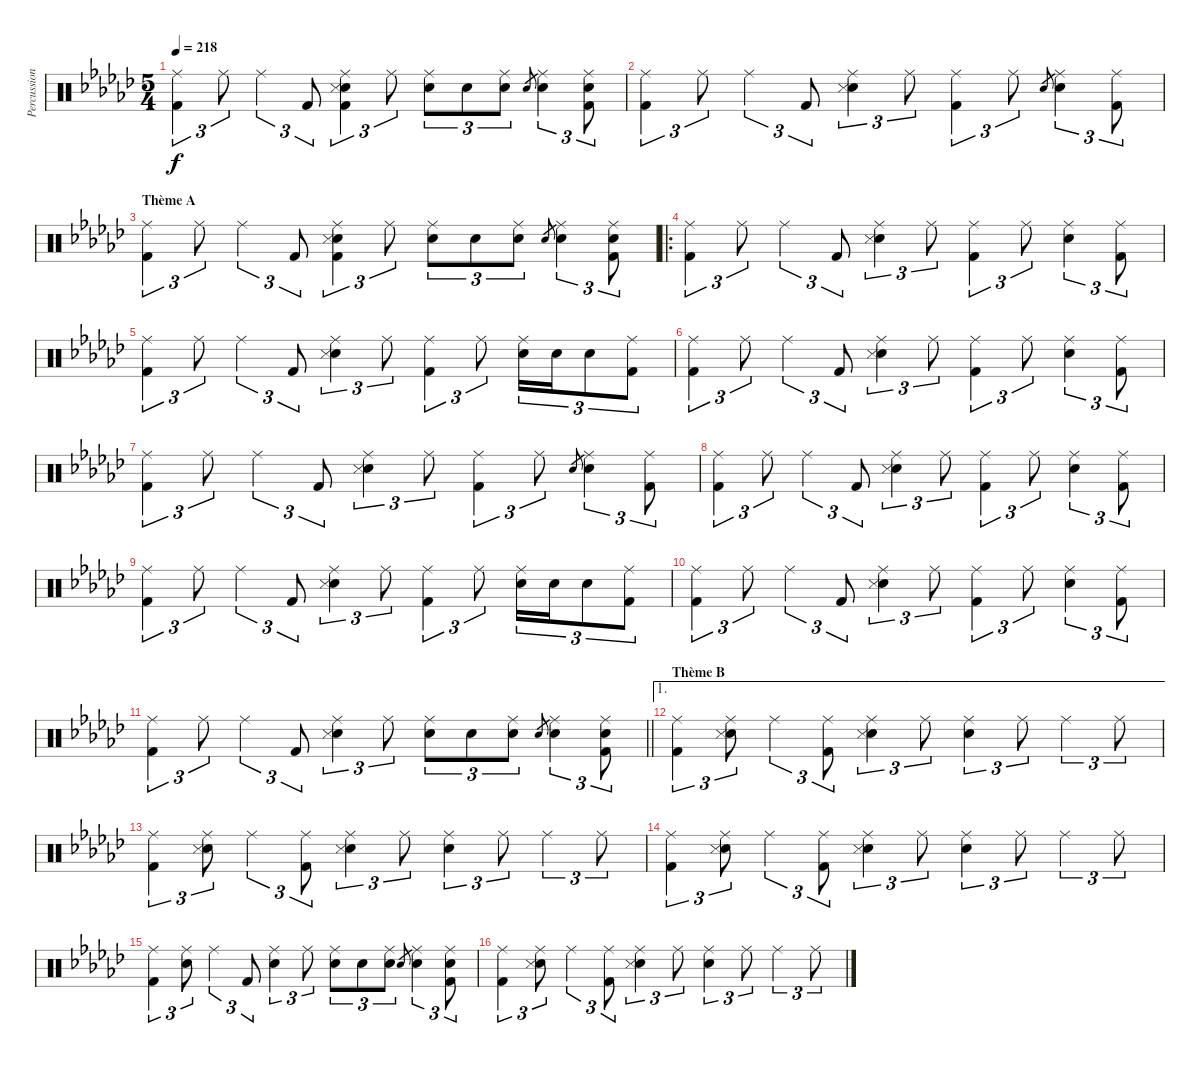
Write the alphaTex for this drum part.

\track ("Percussions" "Percussion") {instrument percussion}
\staff {score}
\articulation defaults
\ts (5 4)
\tempo 218
\clef neutral
\ks ebminor
("Ride (middle)" "Kick (hit) 2").4{tu (3 2) dy f} "Ride (middle)".8{tu (3 2)} "Ride (middle)".4{tu (3 2)} "Kick (hit) 2".8{tu (3 2)} ("Ride (middle)" "Snare (hit) 2" "Snare (side stick) 3" "Kick (hit) 2").4{tu (3 2)} "Ride (middle)".8{tu (3 2)} ("Ride (middle)" "Snare (hit) 2").8{tu (3 2)} "Snare (hit) 2".8{tu (3 2)} ("Ride (middle)" "Snare (hit) 2").8{tu (3 2)} "Snare (hit) 2".8{gr} ("Ride (middle)" "Snare (hit) 2").4{tu (3 2)} ("Ride (middle)" "Snare (hit) 2" "Kick (hit) 2").8{tu (3 2)} |
("Ride (middle)" "Kick (hit) 2").4{tu (3 2)} "Ride (middle)".8{tu (3 2)} "Ride (middle)".4{tu (3 2)} "Kick (hit) 2".8{tu (3 2)} ("Ride (middle)" "Snare (hit) 2" "Snare (side stick) 3").4{tu (3 2)} "Ride (middle)".8{tu (3 2)} ("Ride (middle)" "Kick (hit) 2").4{tu (3 2)} "Ride (middle)".8{tu (3 2)} "Snare (hit) 2".8{gr} ("Ride (middle)" "Snare (hit) 2").4{tu (3 2)} ("Ride (middle)" "Kick (hit) 2").8{tu (3 2)} |
\section ("" "Thème A")
("Ride (middle)" "Kick (hit) 2").4{tu (3 2)} "Ride (middle)".8{tu (3 2)} "Ride (middle)".4{tu (3 2)} "Kick (hit) 2".8{tu (3 2)} ("Ride (middle)" "Snare (hit) 2" "Snare (side stick) 3" "Kick (hit) 2").4{tu (3 2)} "Ride (middle)".8{tu (3 2)} ("Ride (middle)" "Snare (hit) 2").8{tu (3 2)} "Snare (hit) 2".8{tu (3 2)} ("Ride (middle)" "Snare (hit) 2").8{tu (3 2)} "Snare (hit) 2".8{gr} ("Ride (middle)" "Snare (hit) 2").4{tu (3 2)} ("Ride (middle)" "Snare (hit) 2" "Kick (hit) 2").8{tu (3 2)} |
\ro
("Ride (middle)" "Kick (hit) 2").4{tu (3 2) volume 14 balance 8} "Ride (middle)".8{tu (3 2)} "Ride (middle)".4{tu (3 2)} "Kick (hit) 2".8{tu (3 2)} ("Ride (middle)" "Snare (hit) 2" "Snare (side stick) 3").4{tu (3 2)} "Ride (middle)".8{tu (3 2)} ("Ride (middle)" "Kick (hit) 2").4{tu (3 2)} "Ride (middle)".8{tu (3 2)} ("Ride (middle)" "Snare (hit) 2").4{tu (3 2)} ("Ride (middle)" "Kick (hit) 2").8{tu (3 2)} |
("Ride (middle)" "Kick (hit) 2").4{tu (3 2)} "Ride (middle)".8{tu (3 2)} "Ride (middle)".4{tu (3 2)} "Kick (hit) 2".8{tu (3 2)} ("Ride (middle)" "Snare (hit) 2" "Snare (side stick) 3").4{tu (3 2)} "Ride (middle)".8{tu (3 2)} ("Ride (middle)" "Kick (hit) 2").4{tu (3 2)} "Ride (middle)".8{tu (3 2)} ("Ride (middle)" "Snare (hit) 2").16{tu (3 2)} "Snare (hit) 2".16{tu (3 2)} "Snare (hit) 2".8{tu (3 2)} ("Ride (middle)" "Kick (hit) 2").8{tu (3 2)} |
("Ride (middle)" "Kick (hit) 2").4{tu (3 2)} "Ride (middle)".8{tu (3 2)} "Ride (middle)".4{tu (3 2)} "Kick (hit) 2".8{tu (3 2)} ("Ride (middle)" "Snare (hit) 2" "Snare (side stick) 3").4{tu (3 2)} "Ride (middle)".8{tu (3 2)} ("Ride (middle)" "Kick (hit) 2").4{tu (3 2)} "Ride (middle)".8{tu (3 2)} ("Ride (middle)" "Snare (hit) 2").4{tu (3 2)} ("Ride (middle)" "Kick (hit) 2").8{tu (3 2)} |
("Ride (middle)" "Kick (hit) 2").4{tu (3 2)} "Ride (middle)".8{tu (3 2)} "Ride (middle)".4{tu (3 2)} "Kick (hit) 2".8{tu (3 2)} ("Ride (middle)" "Snare (hit) 2" "Snare (side stick) 3").4{tu (3 2)} "Ride (middle)".8{tu (3 2)} ("Ride (middle)" "Kick (hit) 2").4{tu (3 2)} "Ride (middle)".8{tu (3 2)} "Snare (hit) 2".8{gr} ("Ride (middle)" "Snare (hit) 2").4{tu (3 2)} ("Ride (middle)" "Kick (hit) 2").8{tu (3 2)} |
("Ride (middle)" "Kick (hit) 2").4{tu (3 2)} "Ride (middle)".8{tu (3 2)} "Ride (middle)".4{tu (3 2)} "Kick (hit) 2".8{tu (3 2)} ("Ride (middle)" "Snare (hit) 2" "Snare (side stick) 3").4{tu (3 2)} "Ride (middle)".8{tu (3 2)} ("Ride (middle)" "Kick (hit) 2").4{tu (3 2)} "Ride (middle)".8{tu (3 2)} ("Ride (middle)" "Snare (hit) 2").4{tu (3 2)} ("Ride (middle)" "Kick (hit) 2").8{tu (3 2)} |
("Ride (middle)" "Kick (hit) 2").4{tu (3 2)} "Ride (middle)".8{tu (3 2)} "Ride (middle)".4{tu (3 2)} "Kick (hit) 2".8{tu (3 2)} ("Ride (middle)" "Snare (hit) 2" "Snare (side stick) 3").4{tu (3 2)} "Ride (middle)".8{tu (3 2)} ("Ride (middle)" "Kick (hit) 2").4{tu (3 2)} "Ride (middle)".8{tu (3 2)} ("Ride (middle)" "Snare (hit) 2").16{tu (3 2)} "Snare (hit) 2".16{tu (3 2)} "Snare (hit) 2".8{tu (3 2)} ("Ride (middle)" "Kick (hit) 2").8{tu (3 2)} |
("Ride (middle)" "Kick (hit) 2").4{tu (3 2)} "Ride (middle)".8{tu (3 2)} "Ride (middle)".4{tu (3 2)} "Kick (hit) 2".8{tu (3 2)} ("Ride (middle)" "Snare (hit) 2" "Snare (side stick) 3").4{tu (3 2)} "Ride (middle)".8{tu (3 2)} ("Ride (middle)" "Kick (hit) 2").4{tu (3 2)} "Ride (middle)".8{tu (3 2)} ("Ride (middle)" "Snare (hit) 2").4{tu (3 2)} ("Ride (middle)" "Kick (hit) 2").8{tu (3 2)} |
\barLineRight lightlight
("Ride (middle)" "Kick (hit) 2").4{tu (3 2)} "Ride (middle)".8{tu (3 2)} "Ride (middle)".4{tu (3 2)} "Kick (hit) 2".8{tu (3 2)} ("Ride (middle)" "Snare (hit) 2" "Snare (side stick) 3").4{tu (3 2)} "Ride (middle)".8{tu (3 2)} ("Ride (middle)" "Snare (hit) 2").8{tu (3 2)} "Snare (hit) 2".8{tu (3 2)} ("Ride (middle)" "Snare (hit) 2").8{tu (3 2)} "Snare (hit) 2".8{gr} ("Ride (middle)" "Snare (hit) 2").4{tu (3 2)} ("Ride (middle)" "Snare (hit) 2" "Kick (hit) 2").8{tu (3 2)} |
\ae 1
\section ("" "Thème B")
("Ride (middle)" "Kick (hit) 2").4{tu (3 2) volume 15 balance 8} ("Ride (middle)" "Snare (hit) 2" "Snare (side stick) 3").8{tu (3 2)} "Ride (middle)".4{tu (3 2)} ("Ride (middle)" "Kick (hit) 2").8{tu (3 2)} ("Ride (middle)" "Snare (hit) 2" "Snare (side stick) 3").4{tu (3 2)} "Ride (middle)".8{tu (3 2)} ("Ride (middle)" "Snare (hit) 2").4{tu (3 2)} "Ride (middle)".8{tu (3 2)} "Ride (middle)".4{tu (3 2)} "Ride (middle)".8{tu (3 2)} |
("Ride (middle)" "Kick (hit) 2").4{tu (3 2)} ("Ride (middle)" "Snare (hit) 2" "Snare (side stick) 3").8{tu (3 2)} "Ride (middle)".4{tu (3 2)} ("Ride (middle)" "Kick (hit) 2").8{tu (3 2)} ("Ride (middle)" "Snare (hit) 2" "Snare (side stick) 3").4{tu (3 2)} "Ride (middle)".8{tu (3 2)} ("Ride (middle)" "Snare (hit) 2").4{tu (3 2)} "Ride (middle)".8{tu (3 2)} "Ride (middle)".4{tu (3 2)} "Ride (middle)".8{tu (3 2)} |
("Ride (middle)" "Kick (hit) 2").4{tu (3 2)} ("Ride (middle)" "Snare (hit) 2" "Snare (side stick) 3").8{tu (3 2)} "Ride (middle)".4{tu (3 2)} ("Ride (middle)" "Kick (hit) 2").8{tu (3 2)} ("Ride (middle)" "Snare (hit) 2" "Snare (side stick) 3").4{tu (3 2)} "Ride (middle)".8{tu (3 2)} ("Ride (middle)" "Snare (hit) 2").4{tu (3 2)} "Ride (middle)".8{tu (3 2)} "Ride (middle)".4{tu (3 2)} "Ride (middle)".8{tu (3 2)} |
("Ride (middle)" "Kick (hit) 2").4{tu (3 2)} ("Ride (middle)" "Snare (hit) 2").8{tu (3 2)} "Ride (middle)".4{tu (3 2)} "Kick (hit) 2".8{tu (3 2)} ("Ride (middle)" "Snare (hit) 2").4{tu (3 2)} "Ride (middle)".8{tu (3 2)} ("Ride (middle)" "Snare (hit) 2").8{tu (3 2)} "Snare (hit) 2".8{tu (3 2)} ("Ride (middle)" "Snare (hit) 2").8{tu (3 2)} "Snare (hit) 2".8{gr} ("Ride (middle)" "Snare (hit) 2").4{tu (3 2)} ("Ride (middle)" "Snare (hit) 2" "Kick (hit) 2").8{tu (3 2)} |
("Ride (middle)" "Kick (hit) 2").4{tu (3 2)} ("Ride (middle)" "Snare (hit) 2" "Snare (side stick) 3").8{tu (3 2)} "Ride (middle)".4{tu (3 2)} ("Ride (middle)" "Kick (hit) 2").8{tu (3 2)} ("Ride (middle)" "Snare (hit) 2" "Snare (side stick) 3").4{tu (3 2)} "Ride (middle)".8{tu (3 2)} ("Ride (middle)" "Snare (hit) 2").4{tu (3 2)} "Ride (middle)".8{tu (3 2)} "Ride (middle)".4{tu (3 2)} "Ride (middle)".8{tu (3 2)}
